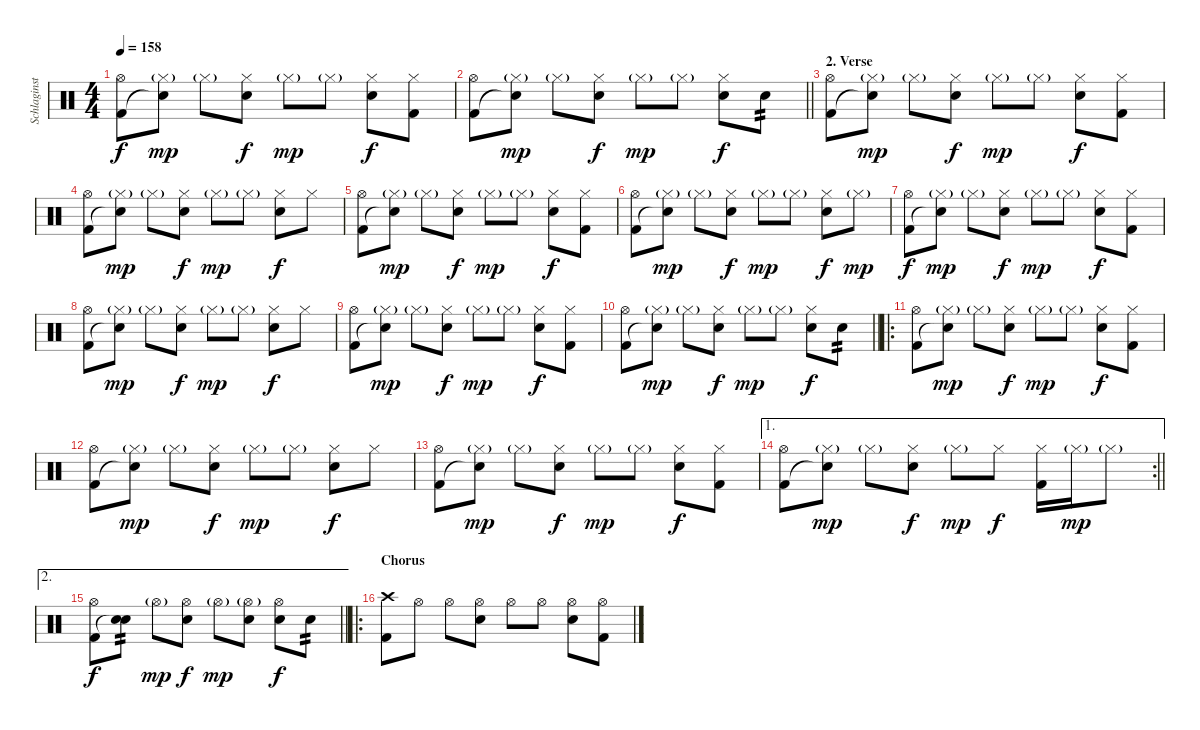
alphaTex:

\track ("Schlaginstrumente - Auswahl" "Schlaginst") {instrument percussion}
\staff {score}
\articulation defaults
\ts (4 4)
\tempo 158
\clef neutral
\ks c
("Hi-Hat (open)" "Kick (hit) 2").8{dy f} ("Hi-Hat (closed)"{g} "Snare (hit)"{t}).8{dy mp} "Hi-Hat (closed)"{g}.8 ("Hi-Hat (closed)" "Snare (hit) 2").8{dy f} "Hi-Hat (closed)"{g}.8{dy mp} "Hi-Hat (closed)"{g}.8 ("Hi-Hat (closed)" "Snare (hit) 2").8{dy f} ("Hi-Hat (closed)" "Kick (hit) 2").8 |
\barLineRight lightlight
("Hi-Hat (open)" "Kick (hit) 2").8 ("Hi-Hat (closed)"{g} "Snare (hit)"{t}).8{dy mp} "Hi-Hat (closed)"{g}.8 ("Hi-Hat (closed)" "Snare (hit) 2").8{dy f} "Hi-Hat (closed)"{g}.8{dy mp} "Hi-Hat (closed)"{g}.8 ("Hi-Hat (closed)" "Snare (hit) 2").8{dy f} "Snare (hit) 2".8{tp 2} |
\section ("" "2. Verse")
("Hi-Hat (open)" "Kick (hit) 2").8 ("Hi-Hat (closed)"{g} "Snare (hit)"{t}).8{dy mp} "Hi-Hat (closed)"{g}.8 ("Hi-Hat (closed)" "Snare (hit) 2").8{dy f} "Hi-Hat (closed)"{g}.8{dy mp} "Hi-Hat (closed)"{g}.8 ("Hi-Hat (closed)" "Snare (hit) 2").8{dy f} ("Hi-Hat (closed)" "Kick (hit) 2").8 |
("Hi-Hat (open)" "Kick (hit) 2").8 ("Hi-Hat (closed)"{g} "Snare (hit)"{t}).8{dy mp} "Hi-Hat (closed)"{g}.8 ("Hi-Hat (closed)" "Snare (hit) 2").8{dy f} "Hi-Hat (closed)"{g}.8{dy mp} "Hi-Hat (closed)"{g}.8 ("Hi-Hat (closed)" "Snare (hit) 2").8{dy f} "Hi-Hat (closed)".8 |
("Hi-Hat (open)" "Kick (hit) 2").8 ("Hi-Hat (closed)"{g} "Snare (hit)"{t}).8{dy mp} "Hi-Hat (closed)"{g}.8 ("Hi-Hat (closed)" "Snare (hit) 2").8{dy f} "Hi-Hat (closed)"{g}.8{dy mp} "Hi-Hat (closed)"{g}.8 ("Hi-Hat (closed)" "Snare (hit) 2").8{dy f} ("Hi-Hat (closed)" "Kick (hit) 2").8 |
("Hi-Hat (open)" "Kick (hit) 2").8 ("Hi-Hat (closed)"{g} "Snare (hit)"{t}).8{dy mp} "Hi-Hat (closed)"{g}.8 ("Hi-Hat (closed)" "Snare (hit) 2").8{dy f} "Hi-Hat (closed)"{g}.8{dy mp} "Hi-Hat (closed)"{g}.8 ("Hi-Hat (closed)" "Snare (hit) 2").8{dy f} "Hi-Hat (closed)"{g}.8{dy mp} |
("Hi-Hat (open)" "Kick (hit) 2").8{dy f} ("Hi-Hat (closed)"{g} "Snare (hit)"{t}).8{dy mp} "Hi-Hat (closed)"{g}.8 ("Hi-Hat (closed)" "Snare (hit) 2").8{dy f} "Hi-Hat (closed)"{g}.8{dy mp} "Hi-Hat (closed)"{g}.8 ("Hi-Hat (closed)" "Snare (hit) 2").8{dy f} ("Hi-Hat (closed)" "Kick (hit) 2").8 |
("Hi-Hat (open)" "Kick (hit) 2").8 ("Hi-Hat (closed)"{g} "Snare (hit)"{t}).8{dy mp} "Hi-Hat (closed)"{g}.8 ("Hi-Hat (closed)" "Snare (hit) 2").8{dy f} "Hi-Hat (closed)"{g}.8{dy mp} "Hi-Hat (closed)"{g}.8 ("Hi-Hat (closed)" "Snare (hit) 2").8{dy f} "Hi-Hat (closed)".8 |
("Hi-Hat (open)" "Kick (hit) 2").8 ("Hi-Hat (closed)"{g} "Snare (hit)"{t}).8{dy mp} "Hi-Hat (closed)"{g}.8 ("Hi-Hat (closed)" "Snare (hit) 2").8{dy f} "Hi-Hat (closed)"{g}.8{dy mp} "Hi-Hat (closed)"{g}.8 ("Hi-Hat (closed)" "Snare (hit) 2").8{dy f} ("Hi-Hat (closed)" "Kick (hit) 2").8 |
\barLineRight lightlight
("Hi-Hat (open)" "Kick (hit) 2").8 ("Hi-Hat (closed)"{g} "Snare (hit)"{t}).8{dy mp} "Hi-Hat (closed)"{g}.8 ("Hi-Hat (closed)" "Snare (hit) 2").8{dy f} "Hi-Hat (closed)"{g}.8{dy mp} "Hi-Hat (closed)"{g}.8 ("Hi-Hat (closed)" "Snare (hit) 2").8{dy f} "Snare (hit) 2".8{tp 2} |
\ro
("Hi-Hat (open)" "Kick (hit) 2").8 ("Hi-Hat (closed)"{g} "Snare (hit)"{t}).8{dy mp} "Hi-Hat (closed)"{g}.8 ("Hi-Hat (closed)" "Snare (hit) 2").8{dy f} "Hi-Hat (closed)"{g}.8{dy mp} "Hi-Hat (closed)"{g}.8 ("Hi-Hat (closed)" "Snare (hit) 2").8{dy f} ("Hi-Hat (closed)" "Kick (hit) 2").8 |
("Hi-Hat (open)" "Kick (hit) 2").8 ("Hi-Hat (closed)"{g} "Snare (hit)"{t}).8{dy mp} "Hi-Hat (closed)"{g}.8 ("Hi-Hat (closed)" "Snare (hit) 2").8{dy f} "Hi-Hat (closed)"{g}.8{dy mp} "Hi-Hat (closed)"{g}.8 ("Hi-Hat (closed)" "Snare (hit) 2").8{dy f} "Hi-Hat (closed)".8 |
("Hi-Hat (open)" "Kick (hit) 2").8 ("Hi-Hat (closed)"{g} "Snare (hit)"{t}).8{dy mp} "Hi-Hat (closed)"{g}.8 ("Hi-Hat (closed)" "Snare (hit) 2").8{dy f} "Hi-Hat (closed)"{g}.8{dy mp} "Hi-Hat (closed)"{g}.8 ("Hi-Hat (closed)" "Snare (hit) 2").8{dy f} ("Hi-Hat (closed)" "Kick (hit) 2").8 |
\ae 1
\rc 2
\barLineRight lightlight
("Hi-Hat (open)" "Kick (hit) 2").8 ("Hi-Hat (closed)"{g} "Snare (hit)"{t}).8{dy mp} "Hi-Hat (closed)"{g}.8 ("Hi-Hat (closed)" "Snare (hit) 2").8{dy f} "Hi-Hat (closed)"{g}.8{dy mp} "Hi-Hat (closed)".8{dy f} ("Hi-Hat (closed)" "Kick (hit) 2").16 "Hi-Hat (closed)"{g}.16{dy mp} "Hi-Hat (closed)"{g}.8 |
\ae 2
\barLineRight lightlight
("Hi-Hat (open)" "Kick (hit) 2").8{dy f} ("Snare (hit) 2" "Snare (hit)"{t}).8{tp 2} "Hi-Hat (open)"{g}.8{dy mp} ("Hi-Hat (open)" "Snare (hit) 2").8{dy f} "Hi-Hat (open)"{g}.8{dy mp} ("Hi-Hat (open)"{g} "Snare (hit) 2").8 ("Hi-Hat (open)" "Snare (hit) 2").8{dy f} "Snare (hit) 2".8{tp 2} |
\ro
\section ("" "Chorus")
("Crash high (hit)" "Kick (hit) 2").8 "Hi-Hat (open)".8 "Hi-Hat (open)".8 ("Hi-Hat (open)" "Snare (hit) 2").8 "Hi-Hat (open)".8 "Hi-Hat (open)".8 ("Hi-Hat (open)" "Snare (hit) 2").8 ("Hi-Hat (open)" "Kick (hit) 2").8
